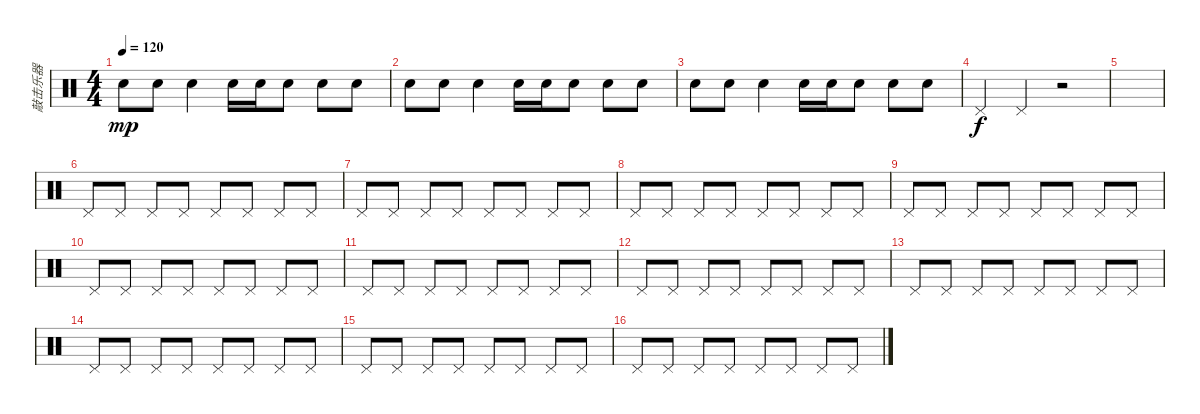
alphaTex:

\track ("敲击乐器" "敲击乐器") {instrument percussion}
\staff {score}
\articulation defaults
\ts (4 4)
\tempo 120
\clef neutral
\ks c "Hand Clap (hit)".8{dy mp} "Hand Clap (hit)".8 "Hand Clap (hit)".4 "Hand Clap (hit)".16 "Hand Clap (hit)".16 "Hand Clap (hit)".8 "Hand Clap (hit)".8 "Hand Clap (hit)".8
|
"Hand Clap (hit)".8 "Hand Clap (hit)".8 "Hand Clap (hit)".4 "Hand Clap (hit)".16 "Hand Clap (hit)".16 "Hand Clap (hit)".8 "Hand Clap (hit)".8 "Hand Clap (hit)".8 |
"Hand Clap (hit)".8 "Hand Clap (hit)".8 "Hand Clap (hit)".4 "Hand Clap (hit)".16 "Hand Clap (hit)".16 "Hand Clap (hit)".8 "Hand Clap (hit)".8 "Hand Clap (hit)".8 |
"Pedal Hi-Hat (hit)".4{dy f} "Pedal Hi-Hat (hit)".4 r.2 |
|
"Pedal Hi-Hat (hit)".8 "Pedal Hi-Hat (hit)".8 "Pedal Hi-Hat (hit)".8 "Pedal Hi-Hat (hit)".8 "Pedal Hi-Hat (hit)".8 "Pedal Hi-Hat (hit)".8 "Pedal Hi-Hat (hit)".8 "Pedal Hi-Hat (hit)".8 |
"Pedal Hi-Hat (hit)".8 "Pedal Hi-Hat (hit)".8 "Pedal Hi-Hat (hit)".8 "Pedal Hi-Hat (hit)".8 "Pedal Hi-Hat (hit)".8 "Pedal Hi-Hat (hit)".8 "Pedal Hi-Hat (hit)".8 "Pedal Hi-Hat (hit)".8 |
"Pedal Hi-Hat (hit)".8 "Pedal Hi-Hat (hit)".8 "Pedal Hi-Hat (hit)".8 "Pedal Hi-Hat (hit)".8 "Pedal Hi-Hat (hit)".8 "Pedal Hi-Hat (hit)".8 "Pedal Hi-Hat (hit)".8 "Pedal Hi-Hat (hit)".8 |
"Pedal Hi-Hat (hit)".8 "Pedal Hi-Hat (hit)".8 "Pedal Hi-Hat (hit)".8 "Pedal Hi-Hat (hit)".8 "Pedal Hi-Hat (hit)".8 "Pedal Hi-Hat (hit)".8 "Pedal Hi-Hat (hit)".8 "Pedal Hi-Hat (hit)".8 |
"Pedal Hi-Hat (hit)".8 "Pedal Hi-Hat (hit)".8 "Pedal Hi-Hat (hit)".8 "Pedal Hi-Hat (hit)".8 "Pedal Hi-Hat (hit)".8 "Pedal Hi-Hat (hit)".8 "Pedal Hi-Hat (hit)".8 "Pedal Hi-Hat (hit)".8 |
"Pedal Hi-Hat (hit)".8 "Pedal Hi-Hat (hit)".8 "Pedal Hi-Hat (hit)".8 "Pedal Hi-Hat (hit)".8 "Pedal Hi-Hat (hit)".8 "Pedal Hi-Hat (hit)".8 "Pedal Hi-Hat (hit)".8 "Pedal Hi-Hat (hit)".8 |
"Pedal Hi-Hat (hit)".8 "Pedal Hi-Hat (hit)".8 "Pedal Hi-Hat (hit)".8 "Pedal Hi-Hat (hit)".8 "Pedal Hi-Hat (hit)".8 "Pedal Hi-Hat (hit)".8 "Pedal Hi-Hat (hit)".8 "Pedal Hi-Hat (hit)".8 |
"Pedal Hi-Hat (hit)".8 "Pedal Hi-Hat (hit)".8 "Pedal Hi-Hat (hit)".8 "Pedal Hi-Hat (hit)".8 "Pedal Hi-Hat (hit)".8 "Pedal Hi-Hat (hit)".8 "Pedal Hi-Hat (hit)".8 "Pedal Hi-Hat (hit)".8 |
"Pedal Hi-Hat (hit)".8 "Pedal Hi-Hat (hit)".8 "Pedal Hi-Hat (hit)".8 "Pedal Hi-Hat (hit)".8 "Pedal Hi-Hat (hit)".8 "Pedal Hi-Hat (hit)".8 "Pedal Hi-Hat (hit)".8 "Pedal Hi-Hat (hit)".8 |
"Pedal Hi-Hat (hit)".8 "Pedal Hi-Hat (hit)".8 "Pedal Hi-Hat (hit)".8 "Pedal Hi-Hat (hit)".8 "Pedal Hi-Hat (hit)".8 "Pedal Hi-Hat (hit)".8 "Pedal Hi-Hat (hit)".8 "Pedal Hi-Hat (hit)".8 |
"Pedal Hi-Hat (hit)".8 "Pedal Hi-Hat (hit)".8 "Pedal Hi-Hat (hit)".8 "Pedal Hi-Hat (hit)".8 "Pedal Hi-Hat (hit)".8 "Pedal Hi-Hat (hit)".8 "Pedal Hi-Hat (hit)".8 "Pedal Hi-Hat (hit)".8
